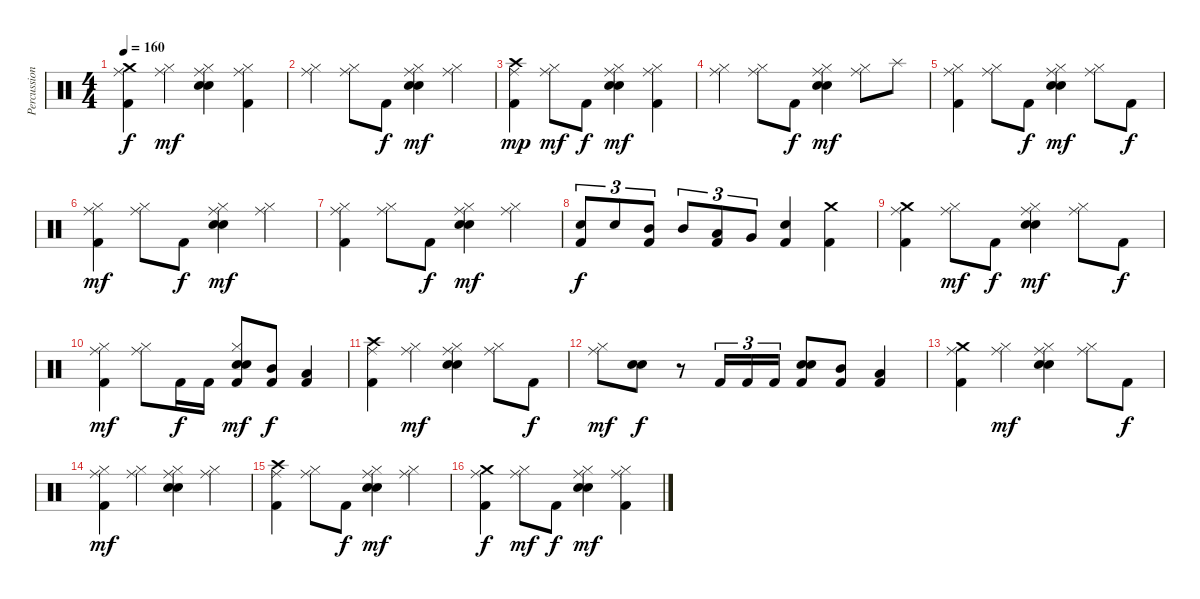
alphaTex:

\track ("Percussion" "Percussion") {instrument percussion}
\staff {score}
\articulation defaults
\ts (4 4)
\tempo 160
\clef neutral
\ks c
("Crash medium (hit)" "Ride (middle)" "Kick (hit) 2").4{dy f} ("Ride (middle)" "Hi-Hat (closed)").4{dy mf} ("Ride (middle)" "Hi-Hat (closed)" "Snare (hit) 2" "Electric Snare (hit)").4 ("Ride (middle)" "Hi-Hat (closed)" "Kick (hit) 2").4 |
("Ride (middle)" "Hi-Hat (closed)").4 ("Ride (middle)" "Hi-Hat (closed)").8 "Kick (hit) 2".8{dy f} ("Ride (middle)" "Hi-Hat (closed)" "Snare (hit) 2" "Electric Snare (hit)").4{dy mf} ("Ride (middle)" "Hi-Hat (closed)").4 |
("Crash high (hit)" "Ride (middle)" "Kick (hit) 2").4{dy mp} ("Ride (middle)" "Hi-Hat (closed)").8{dy mf} "Kick (hit) 2".8{dy f} ("Ride (middle)" "Hi-Hat (closed)" "Snare (hit) 2" "Electric Snare (hit)").4{dy mf} ("Ride (middle)" "Hi-Hat (closed)" "Kick (hit) 2").4 |
("Ride (middle)" "Hi-Hat (closed)").4 ("Ride (middle)" "Hi-Hat (closed)").8 "Kick (hit) 2".8{dy f} ("Ride (middle)" "Hi-Hat (closed)" "Snare (hit) 2" "Electric Snare (hit)").4{dy mf} ("Ride (middle)" "Hi-Hat (closed)").8 "Splash (hit)".8 |
("Ride (middle)" "Hi-Hat (closed)" "Kick (hit) 2").4 ("Ride (middle)" "Hi-Hat (closed)").8 "Kick (hit) 2".8{dy f} ("Ride (middle)" "Hi-Hat (closed)" "Snare (hit) 2" "Electric Snare (hit)").4{dy mf} ("Ride (middle)" "Hi-Hat (closed)").8 "Kick (hit) 2".8{dy f} |
("Ride (middle)" "Hi-Hat (closed)" "Kick (hit) 2").4{dy mf} ("Ride (middle)" "Hi-Hat (closed)").8 "Kick (hit) 2".8{dy f} ("Ride (middle)" "Hi-Hat (closed)" "Snare (hit) 2" "Electric Snare (hit)").4{dy mf} ("Ride (middle)" "Hi-Hat (closed)").4 |
("Ride (middle)" "Hi-Hat (closed)" "Kick (hit) 2").4 ("Ride (middle)" "Hi-Hat (closed)").8 "Kick (hit) 2".8{dy f} ("Ride (middle)" "Hi-Hat (closed)" "Snare (hit) 2" "Electric Snare (hit)").4{dy mf} ("Ride (middle)" "Hi-Hat (closed)").4 |
("Snare (hit) 2" "Kick (hit) 2").8{tu (3 2) dy f} "Snare (hit) 2".8{tu (3 2)} ("Mid Tom (hit)" "Kick (hit) 2").8{tu (3 2)} "Mid Tom (hit)".8{tu (3 2)} ("Low Tom (hit)" "Kick (hit) 2").8{tu (3 2)} "Very Low Tom (hit)".8{tu (3 2)} ("Electric Snare (hit)" "Kick (hit) 2").4 ("Crash medium (hit)" "Kick (hit) 2").4 |
("Crash medium (hit)" "Ride (middle)" "Kick (hit) 2").4 ("Ride (middle)" "Hi-Hat (closed)").8{dy mf} "Kick (hit) 2".8{dy f} ("Ride (middle)" "Hi-Hat (closed)" "Snare (hit) 2" "Electric Snare (hit)").4{dy mf} ("Ride (middle)" "Hi-Hat (closed)").8 "Kick (hit) 2".8{dy f} |
("Ride (middle)" "Hi-Hat (closed)" "Kick (hit) 2").4{dy mf} ("Ride (middle)" "Hi-Hat (closed)").8 "Kick (hit) 2".16{dy f} "Kick (hit) 2".16 ("Hi-Hat (closed)" "Snare (hit) 2" "Electric Snare (hit)" "Kick (hit) 2").8{dy mf} ("Mid Tom (hit)" "Kick (hit) 2").8{dy f} ("Low Tom (hit)" "Kick (hit) 2").4 |
("Crash high (hit)" "Ride (middle)" "Kick (hit) 2").4 ("Ride (middle)" "Hi-Hat (closed)").4{dy mf} ("Ride (middle)" "Hi-Hat (closed)" "Snare (hit) 2" "Electric Snare (hit)").4 ("Ride (middle)" "Hi-Hat (closed)").8 "Kick (hit) 2".8{dy f} |
("Ride (middle)" "Hi-Hat (closed)").8{dy mf} ("Snare (hit) 2" "Electric Snare (hit)").8{dy f} r.8 "Kick (hit) 2".16{tu (3 2)} "Kick (hit) 2".16{tu (3 2)} "Kick (hit) 2".16{tu (3 2)} ("Snare (hit) 2" "Electric Snare (hit)" "Kick (hit) 2").8 ("Mid Tom (hit)" "Kick (hit) 2").8 ("Low Tom (hit)" "Kick (hit) 2").4 |
("Crash medium (hit)" "Ride (middle)" "Kick (hit) 2").4 ("Ride (middle)" "Hi-Hat (closed)").4{dy mf} ("Ride (middle)" "Hi-Hat (closed)" "Snare (hit) 2" "Electric Snare (hit)").4 ("Ride (middle)" "Hi-Hat (closed)").8 "Kick (hit) 2".8{dy f} |
("Ride (middle)" "Hi-Hat (closed)" "Kick (hit) 2").4{dy mf} ("Ride (middle)" "Hi-Hat (closed)").4 ("Ride (middle)" "Hi-Hat (closed)" "Snare (hit) 2" "Electric Snare (hit)").4 ("Ride (middle)" "Hi-Hat (closed)").4 |
("Crash high (hit)" "Ride (middle)" "Kick (hit) 2").4 ("Ride (middle)" "Hi-Hat (closed)").8 "Kick (hit) 2".8{dy f} ("Ride (middle)" "Hi-Hat (closed)" "Snare (hit) 2" "Electric Snare (hit)").4{dy mf} ("Ride (middle)" "Hi-Hat (closed)").4 |
("Crash medium (hit)" "Ride (middle)" "Kick (hit) 2").4{dy f} ("Ride (middle)" "Hi-Hat (closed)").8{dy mf} "Kick (hit) 2".8{dy f} ("Ride (middle)" "Hi-Hat (closed)" "Snare (hit) 2" "Electric Snare (hit)").4{dy mf} ("Ride (middle)" "Hi-Hat (closed)" "Kick (hit) 2").4
